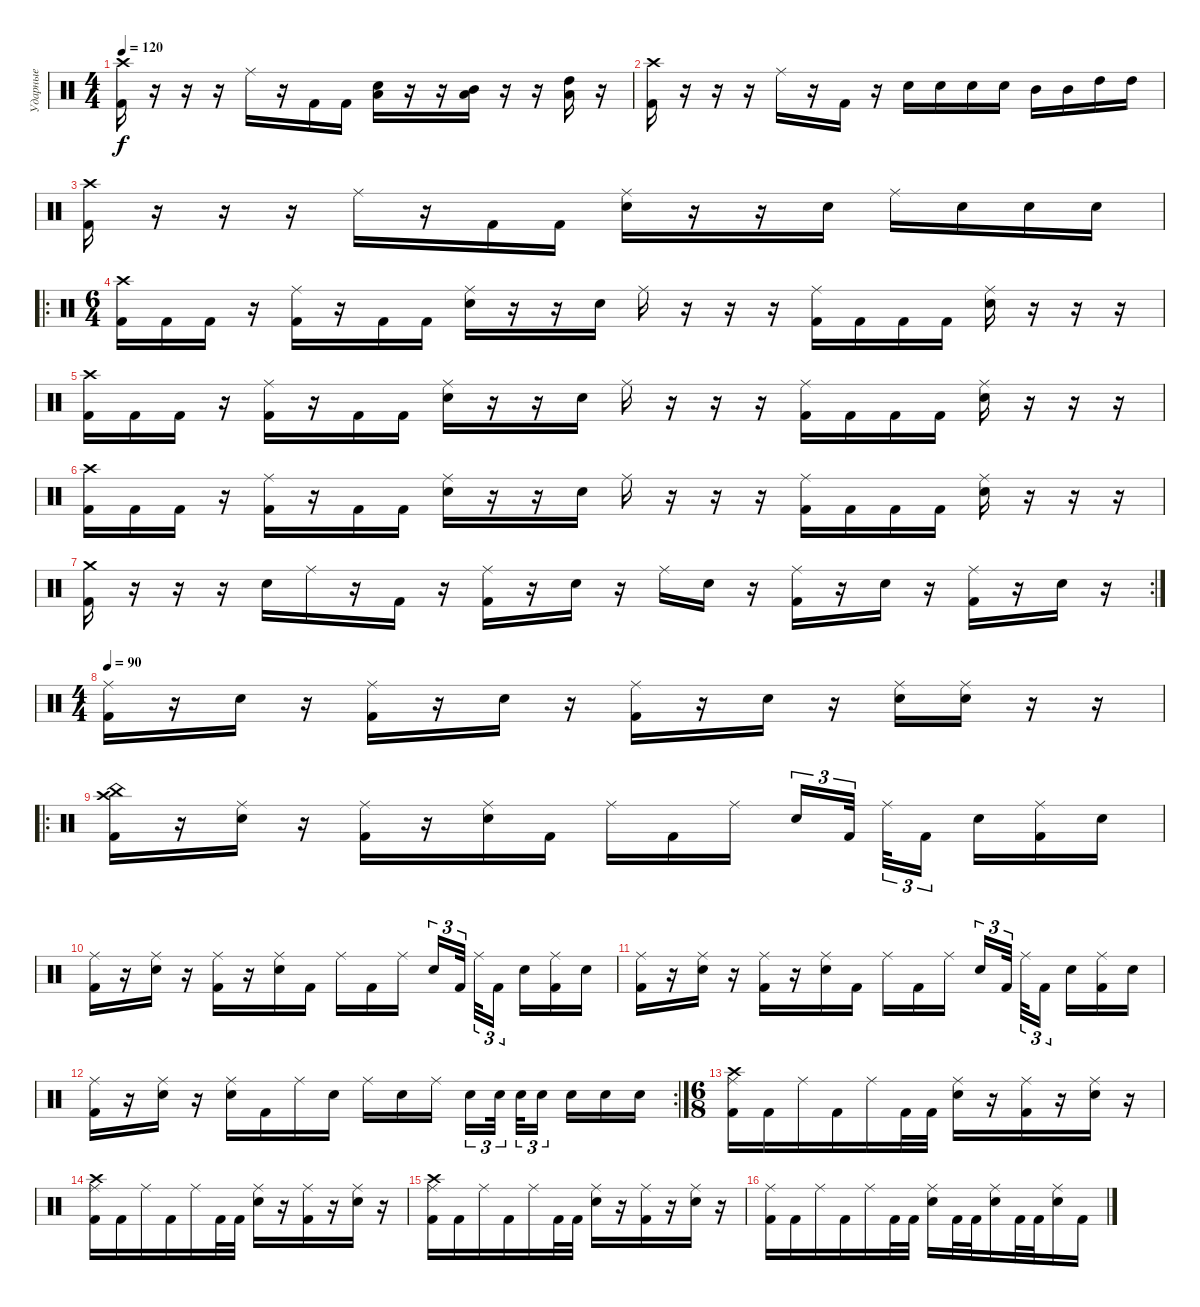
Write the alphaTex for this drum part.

\track ("Ударные" "Ударные") {instrument percussion}
\staff {score}
\articulation defaults
\ts (4 4)
\tempo 120
\clef neutral
\ks c
("Crash high (hit)" "Kick (hit) 2").16{dy f} r.16 r.16 r.16 "Ride (middle)".16 r.16 "Kick (hit) 2".16 "Kick (hit) 2".16 ("Low Tom (hit)" "Electric Snare (hit)").16 r.16 r.16 ("Low Tom (hit)" "Mid Tom (hit)").16 r.16 r.16 ("Low Tom (hit)" "High Tom (hit)").16 r.16 |
("Crash high (hit)" "Kick (hit) 2").16 r.16 r.16 r.16 "Ride (middle)".16 r.16 "Kick (hit) 2".16 r.16 "Electric Snare (hit)".16 "Electric Snare (hit)".16 "Electric Snare (hit)".16 "Electric Snare (hit)".16 "Mid Tom (hit)".16 "Mid Tom (hit)".16 "High Tom (hit)".16 "High Tom (hit)".16 |
("Crash high (hit)" "Kick (hit) 2").16 r.16 r.16 r.16 "Ride (middle)".16 r.16 "Kick (hit) 2".16 "Kick (hit) 2".16 ("Ride (middle)" "Electric Snare (hit)").16 r.16 r.16 "Electric Snare (hit)".16 "Ride (middle)".16 "Electric Snare (hit)".16 "Electric Snare (hit)".16 "Electric Snare (hit)".16 |
\ro
\ts (6 4)
("Crash high (hit)" "Kick (hit) 2").16 "Kick (hit) 2".16 "Kick (hit) 2".16 r.16 ("Ride (middle)" "Kick (hit) 2").16 r.16 "Kick (hit) 2".16 "Kick (hit) 2".16 ("Ride (middle)" "Electric Snare (hit)").16 r.16 r.16 "Electric Snare (hit)".16 "Ride (middle)".16 r.16 r.16 r.16 ("Ride (middle)" "Kick (hit) 2").16 "Kick (hit) 2".16 "Kick (hit) 2".16 "Kick (hit) 2".16 ("Ride (middle)" "Electric Snare (hit)").16 r.16 r.16 r.16 |
("Crash high (hit)" "Kick (hit) 2").16 "Kick (hit) 2".16 "Kick (hit) 2".16 r.16 ("Ride (middle)" "Kick (hit) 2").16 r.16 "Kick (hit) 2".16 "Kick (hit) 2".16 ("Ride (middle)" "Electric Snare (hit)").16 r.16 r.16 "Electric Snare (hit)".16 "Ride (middle)".16 r.16 r.16 r.16 ("Ride (middle)" "Kick (hit) 2").16 "Kick (hit) 2".16 "Kick (hit) 2".16 "Kick (hit) 2".16 ("Ride (middle)" "Electric Snare (hit)").16 r.16 r.16 r.16 |
("Crash high (hit)" "Kick (hit) 2").16 "Kick (hit) 2".16 "Kick (hit) 2".16 r.16 ("Ride (middle)" "Kick (hit) 2").16 r.16 "Kick (hit) 2".16 "Kick (hit) 2".16 ("Ride (middle)" "Electric Snare (hit)").16 r.16 r.16 "Electric Snare (hit)".16 "Ride (middle)".16 r.16 r.16 r.16 ("Ride (middle)" "Kick (hit) 2").16 "Kick (hit) 2".16 "Kick (hit) 2".16 "Kick (hit) 2".16 ("Ride (middle)" "Electric Snare (hit)").16 r.16 r.16 r.16 |
\rc 2
("Crash medium (hit)" "Kick (hit) 2").16 r.16 r.16 r.16 "Electric Snare (hit)".16 "Ride (middle)".16 r.16 "Kick (hit) 2".16 r.16 ("Ride (middle)" "Kick (hit) 2").16 r.16 "Electric Snare (hit)".16 r.16 "Ride (middle)".16 "Electric Snare (hit)".16 r.16 ("Ride (middle)" "Kick (hit) 2").16 r.16 "Electric Snare (hit)".16 r.16 ("Ride (middle)" "Kick (hit) 2").16 r.16 "Electric Snare (hit)".16 r.16 |
\ts (4 4)
\tempo 90
("Ride (middle)" "Kick (hit) 2").16 r.16 "Electric Snare (hit)".16 r.16 ("Ride (middle)" "Kick (hit) 2").16 r.16 "Electric Snare (hit)".16 r.16 ("Ride (middle)" "Kick (hit) 2").16 r.16 "Electric Snare (hit)".16 r.16 ("Ride (middle)" "Electric Snare (hit)").16 ("Ride (middle)" "Electric Snare (hit)").16 r.16 r.16 |
\ro
("Crash high (hit)" "China (hit)" "Kick (hit) 2").16 r.16 ("Ride (middle)" "Electric Snare (hit)").16 r.16 ("Ride (middle)" "Kick (hit) 2").16 r.16 ("Ride (middle)" "Electric Snare (hit)").16 "Kick (hit) 2".16 "Ride (middle)".16 "Kick (hit) 2".16 "Ride (middle)".16{beam splitsecondary} "Electric Snare (hit)".16{tu (3 2)} "Kick (hit) 2".32{tu (3 2)} "Ride (middle)".32{tu (3 2)} "Kick (hit) 2".16{tu (3 2) beam splitsecondary} "Electric Snare (hit)".16 ("Ride (middle)" "Kick (hit) 2").16 "Electric Snare (hit)".16 |
("Ride (middle)" "Kick (hit) 2").16 r.16 ("Ride (middle)" "Electric Snare (hit)").16 r.16 ("Ride (middle)" "Kick (hit) 2").16 r.16 ("Ride (middle)" "Electric Snare (hit)").16 "Kick (hit) 2".16 "Ride (middle)".16 "Kick (hit) 2".16 "Ride (middle)".16{beam splitsecondary} "Electric Snare (hit)".16{tu (3 2)} "Kick (hit) 2".32{tu (3 2)} "Ride (middle)".32{tu (3 2)} "Kick (hit) 2".16{tu (3 2) beam splitsecondary} "Electric Snare (hit)".16 ("Ride (middle)" "Kick (hit) 2").16 "Electric Snare (hit)".16 |
("Ride (middle)" "Kick (hit) 2").16 r.16 ("Ride (middle)" "Electric Snare (hit)").16 r.16 ("Ride (middle)" "Kick (hit) 2").16 r.16 ("Ride (middle)" "Electric Snare (hit)").16 "Kick (hit) 2".16 "Ride (middle)".16 "Kick (hit) 2".16 "Ride (middle)".16{beam splitsecondary} "Electric Snare (hit)".16{tu (3 2)} "Kick (hit) 2".32{tu (3 2)} "Ride (middle)".32{tu (3 2)} "Kick (hit) 2".16{tu (3 2) beam splitsecondary} "Electric Snare (hit)".16 ("Ride (middle)" "Kick (hit) 2").16 "Electric Snare (hit)".16 |
\rc 2
("Ride (middle)" "Kick (hit) 2").16 r.16 ("Ride (middle)" "Electric Snare (hit)").16 r.16 ("Ride (middle)" "Electric Snare (hit)").16 "Kick (hit) 2".16 "Ride (middle)".16 "Electric Snare (hit)".16 "Ride (middle)".16 "Electric Snare (hit)".16 "Ride (middle)".16{beam splitsecondary} "Electric Snare (hit)".16{tu (3 2)} "Electric Snare (hit)".32{tu (3 2)} "Electric Snare (hit)".32{tu (3 2)} "Electric Snare (hit)".16{tu (3 2) beam splitsecondary} "Electric Snare (hit)".16 "Electric Snare (hit)".16 "Electric Snare (hit)".16 |
\ts (6 8)
("Ride (middle)" "Crash high (hit)" "Kick (hit) 2").16 "Kick (hit) 2".16 "Ride (middle)".16 "Kick (hit) 2".16 "Ride (middle)".16 "Kick (hit) 2".32 "Kick (hit) 2".32 ("Ride (middle)" "Electric Snare (hit)").16 r.16 ("Ride (middle)" "Kick (hit) 2").16 r.16 ("Ride (middle)" "Electric Snare (hit)").16 r.16 |
("Ride (middle)" "Crash high (hit)" "Kick (hit) 2").16 "Kick (hit) 2".16 "Ride (middle)".16 "Kick (hit) 2".16 "Ride (middle)".16 "Kick (hit) 2".32 "Kick (hit) 2".32 ("Ride (middle)" "Electric Snare (hit)").16 r.16 ("Ride (middle)" "Kick (hit) 2").16 r.16 ("Ride (middle)" "Electric Snare (hit)").16 r.16 |
("Ride (middle)" "Crash high (hit)" "Kick (hit) 2").16 "Kick (hit) 2".16 "Ride (middle)".16 "Kick (hit) 2".16 "Ride (middle)".16 "Kick (hit) 2".32 "Kick (hit) 2".32 ("Ride (middle)" "Electric Snare (hit)").16 r.16 ("Ride (middle)" "Kick (hit) 2").16 r.16 ("Ride (middle)" "Electric Snare (hit)").16 r.16 |
("Ride (middle)" "Kick (hit) 2").16 "Kick (hit) 2".16 "Ride (middle)".16 "Kick (hit) 2".16 "Ride (middle)".16 "Kick (hit) 2".32 "Kick (hit) 2".32 ("Ride (middle)" "Electric Snare (hit)").16 "Kick (hit) 2".32 "Kick (hit) 2".32 ("Ride (middle)" "Electric Snare (hit)").16 "Kick (hit) 2".32 "Kick (hit) 2".32 ("Ride (middle)" "Electric Snare (hit)").16 "Kick (hit) 2".16
